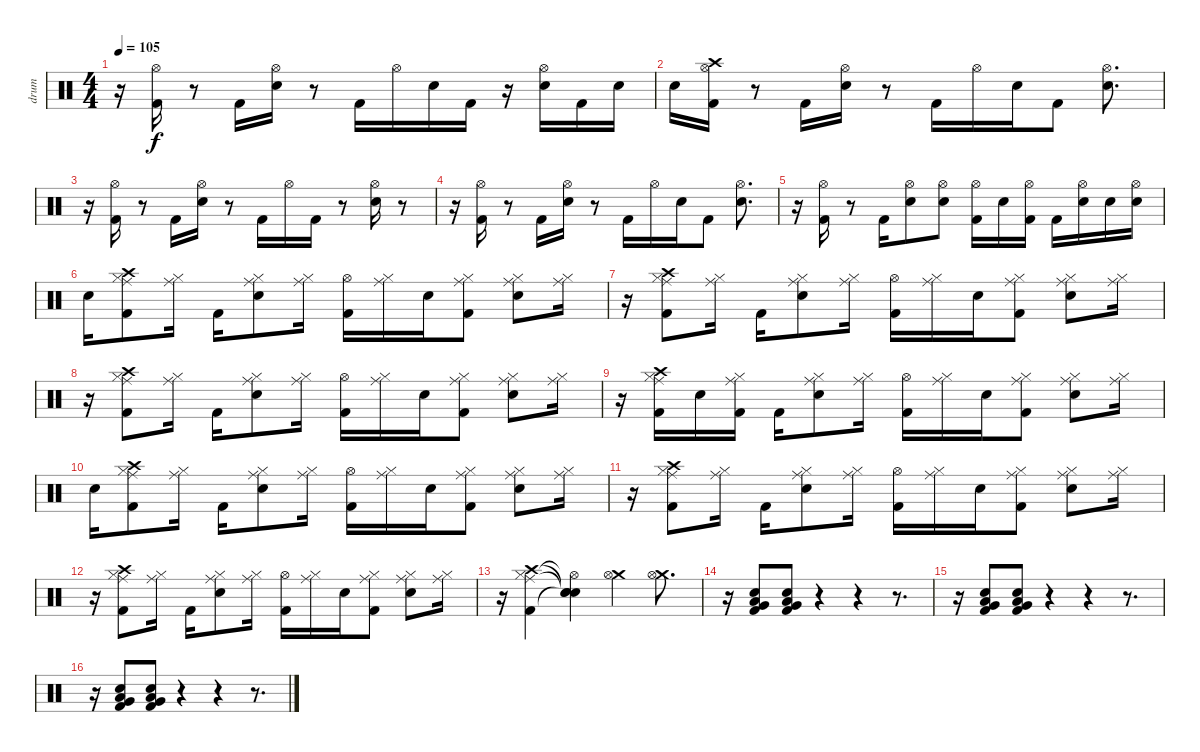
\track ("drum" "drum") {instrument percussion}
\staff {score}
\articulation defaults
\ts (4 4)
\tempo 105
\clef neutral
\ks c
r.16{dy f} ("Hi-Hat (open)" "Kick (hit) 2").16 r.8 "Kick (hit) 2".16 ("Hi-Hat (open)" "Electric Snare (hit)").16 r.8 "Kick (hit) 2".16 "Hi-Hat (open)".16 "Electric Snare (hit)".16 "Kick (hit) 2".16 r.16 ("Hi-Hat (open)" "Electric Snare (hit)").16 "Kick (hit) 2".16 "Electric Snare (hit)".16 |
"Electric Snare (hit)".16 ("Crash high (hit)" "Hi-Hat (open)" "Kick (hit) 2").16 r.8 "Kick (hit) 2".16 ("Hi-Hat (open)" "Electric Snare (hit)").16 r.8 "Kick (hit) 2".16 "Hi-Hat (open)".16 "Electric Snare (hit)".16 "Kick (hit) 2".8 ("Hi-Hat (open)" "Electric Snare (hit)").8{d} |
r.16 ("Hi-Hat (open)" "Kick (hit) 2").16 r.8 "Kick (hit) 2".16 ("Hi-Hat (open)" "Electric Snare (hit)").16 r.8 "Kick (hit) 2".16 "Hi-Hat (open)".16 "Kick (hit) 2".16 r.8 ("Hi-Hat (open)" "Electric Snare (hit)").16 r.8 |
r.16 ("Hi-Hat (open)" "Kick (hit) 2").16 r.8 "Kick (hit) 2".16 ("Hi-Hat (open)" "Electric Snare (hit)").16 r.8 "Kick (hit) 2".16 "Hi-Hat (open)".16 "Electric Snare (hit)".16 "Kick (hit) 2".8 ("Hi-Hat (open)" "Electric Snare (hit)").8{d} |
r.16 ("Hi-Hat (open)" "Kick (hit) 2").16 r.8 "Kick (hit) 2".16 ("Hi-Hat (open)" "Electric Snare (hit)").8 ("Hi-Hat (open)" "Electric Snare (hit)").8 ("Hi-Hat (open)" "Kick (hit) 2").16 "Electric Snare (hit)".16 ("Hi-Hat (open)" "Kick (hit) 2").16 "Kick (hit) 2".16 ("Hi-Hat (open)" "Electric Snare (hit)").16 "Electric Snare (hit)".16 ("Hi-Hat (open)" "Electric Snare (hit)").16 |
"Electric Snare (hit)".16 ("Crash high (hit)" "Hi-Hat (closed)" "Ride (middle)" "Kick (hit) 2").8 ("Hi-Hat (closed)" "Ride (middle)").16 "Kick (hit) 2".16 ("Hi-Hat (closed)" "Ride (middle)" "Electric Snare (hit)").8 ("Hi-Hat (closed)" "Ride (middle)").16 ("Hi-Hat (open)" "Kick (hit) 2").16 ("Hi-Hat (closed)" "Ride (middle)").16 "Electric Snare (hit)".16 ("Hi-Hat (closed)" "Ride (middle)" "Kick (hit) 2").8 ("Hi-Hat (closed)" "Ride (middle)" "Electric Snare (hit)").8 ("Hi-Hat (closed)" "Ride (middle)").16 |
r.16 ("Crash high (hit)" "Hi-Hat (closed)" "Ride (middle)" "Kick (hit) 2").8 ("Hi-Hat (closed)" "Ride (middle)").16 "Kick (hit) 2".16 ("Hi-Hat (closed)" "Ride (middle)" "Electric Snare (hit)").8 ("Hi-Hat (closed)" "Ride (middle)").16 ("Hi-Hat (open)" "Kick (hit) 2").16 ("Hi-Hat (closed)" "Ride (middle)").16 "Electric Snare (hit)".16 ("Hi-Hat (closed)" "Ride (middle)" "Kick (hit) 2").8 ("Hi-Hat (closed)" "Ride (middle)" "Electric Snare (hit)").8 ("Hi-Hat (closed)" "Ride (middle)").16 |
r.16 ("Crash high (hit)" "Hi-Hat (closed)" "Ride (middle)" "Kick (hit) 2").8 ("Hi-Hat (closed)" "Ride (middle)").16 "Kick (hit) 2".16 ("Hi-Hat (closed)" "Ride (middle)" "Electric Snare (hit)").8 ("Hi-Hat (closed)" "Ride (middle)").16 ("Hi-Hat (open)" "Kick (hit) 2").16 ("Hi-Hat (closed)" "Ride (middle)").16 "Electric Snare (hit)".16 ("Hi-Hat (closed)" "Ride (middle)" "Kick (hit) 2").8 ("Hi-Hat (closed)" "Ride (middle)" "Electric Snare (hit)").8 ("Hi-Hat (closed)" "Ride (middle)").16 |
r.16 ("Crash high (hit)" "Hi-Hat (closed)" "Ride (middle)" "Kick (hit) 2").16 "Electric Snare (hit)".16 ("Hi-Hat (closed)" "Ride (middle)" "Kick (hit) 2").16 "Kick (hit) 2".16 ("Hi-Hat (closed)" "Ride (middle)" "Electric Snare (hit)").8 ("Hi-Hat (closed)" "Ride (middle)").16 ("Hi-Hat (open)" "Kick (hit) 2").16 ("Hi-Hat (closed)" "Ride (middle)").16 "Electric Snare (hit)".16 ("Hi-Hat (closed)" "Ride (middle)" "Kick (hit) 2").8 ("Hi-Hat (closed)" "Ride (middle)" "Electric Snare (hit)").8 ("Hi-Hat (closed)" "Ride (middle)").16 |
"Electric Snare (hit)".16 ("Crash high (hit)" "Hi-Hat (closed)" "Ride (middle)" "Kick (hit) 2").8 ("Hi-Hat (closed)" "Ride (middle)").16 "Kick (hit) 2".16 ("Hi-Hat (closed)" "Ride (middle)" "Electric Snare (hit)").8 ("Hi-Hat (closed)" "Ride (middle)").16 ("Hi-Hat (open)" "Kick (hit) 2").16 ("Hi-Hat (closed)" "Ride (middle)").16 "Electric Snare (hit)".16 ("Hi-Hat (closed)" "Ride (middle)" "Kick (hit) 2").8 ("Hi-Hat (closed)" "Ride (middle)" "Electric Snare (hit)").8 ("Hi-Hat (closed)" "Ride (middle)").16 |
r.16 ("Crash high (hit)" "Hi-Hat (closed)" "Ride (middle)" "Kick (hit) 2").8 ("Hi-Hat (closed)" "Ride (middle)").16 "Kick (hit) 2".16 ("Hi-Hat (closed)" "Ride (middle)" "Electric Snare (hit)").8 ("Hi-Hat (closed)" "Ride (middle)").16 ("Hi-Hat (open)" "Kick (hit) 2").16 ("Hi-Hat (closed)" "Ride (middle)").16 "Electric Snare (hit)".16 ("Hi-Hat (closed)" "Ride (middle)" "Kick (hit) 2").8 ("Hi-Hat (closed)" "Ride (middle)" "Electric Snare (hit)").8 ("Hi-Hat (closed)" "Ride (middle)").16 |
r.16 ("Crash high (hit)" "Hi-Hat (closed)" "Ride (middle)" "Kick (hit) 2").8 ("Hi-Hat (closed)" "Ride (middle)").16 "Kick (hit) 2".16 ("Hi-Hat (closed)" "Ride (middle)" "Electric Snare (hit)").8 ("Hi-Hat (closed)" "Ride (middle)").16 ("Hi-Hat (open)" "Kick (hit) 2").16 ("Hi-Hat (closed)" "Ride (middle)").16 "Electric Snare (hit)".16 ("Hi-Hat (closed)" "Ride (middle)" "Kick (hit) 2").8 ("Hi-Hat (closed)" "Ride (middle)" "Electric Snare (hit)").8 ("Hi-Hat (closed)" "Ride (middle)").16 |
r.16 ("Crash high (hit)" "Hi-Hat (closed)" "Ride (middle)" "Kick (hit) 2").4 ("Snare (hit)"{t} "Hi-Hat (open)"{t} "Snare (hit)"{t} "Snare (hit)"{t}).4 ("Crash medium (hit)" "Hi-Hat (open)").4 ("Crash medium (hit)" "Hi-Hat (open)").8{d} |
r.16 ("Very Low Tom (hit)" "Low Floor Tom (hit)" "Electric Snare (hit)" "Kick (hit) 2").8 ("Very Low Tom (hit)" "Low Floor Tom (hit)" "Electric Snare (hit)" "Kick (hit) 2").8 r.4 r.4 r.8{d} |
r.16 ("Very Low Tom (hit)" "Low Floor Tom (hit)" "Electric Snare (hit)" "Kick (hit) 2").8 ("Very Low Tom (hit)" "Low Floor Tom (hit)" "Electric Snare (hit)" "Kick (hit) 2").8 r.4 r.4 r.8{d} |
r.16 ("Very Low Tom (hit)" "Low Floor Tom (hit)" "Electric Snare (hit)" "Kick (hit) 2").8 ("Very Low Tom (hit)" "Low Floor Tom (hit)" "Electric Snare (hit)" "Kick (hit) 2").8 r.4 r.4 r.8{d}
